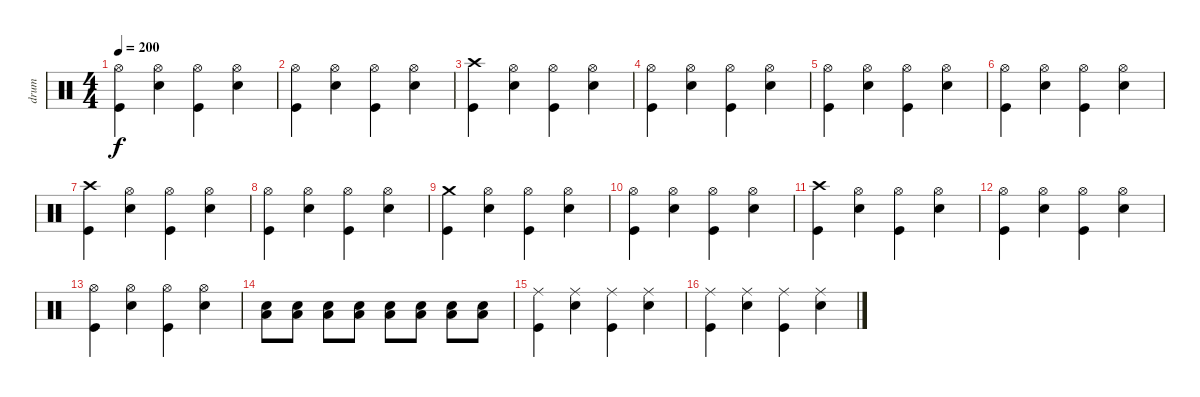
\track ("drum" "drum") {instrument percussion}
\staff {score}
\articulation defaults
\ts (4 4)
\tempo 200
\clef neutral
\ks c
("Hi-Hat (open)" "Kick (hit)").4{dy f} ("Hi-Hat (open)" "Snare (hit) 2").4 ("Hi-Hat (open)" "Kick (hit)").4 ("Hi-Hat (open)" "Snare (hit) 2").4 |
("Hi-Hat (open)" "Kick (hit)").4 ("Hi-Hat (open)" "Snare (hit) 2").4 ("Hi-Hat (open)" "Kick (hit)").4 ("Hi-Hat (open)" "Snare (hit) 2").4 |
("Crash high (hit)" "Kick (hit)").4 ("Hi-Hat (open)" "Snare (hit) 2").4 ("Hi-Hat (open)" "Kick (hit)").4 ("Hi-Hat (open)" "Snare (hit) 2").4 |
("Hi-Hat (open)" "Kick (hit)").4 ("Hi-Hat (open)" "Snare (hit) 2").4 ("Hi-Hat (open)" "Kick (hit)").4 ("Hi-Hat (open)" "Snare (hit) 2").4 |
("Hi-Hat (open)" "Kick (hit)").4 ("Hi-Hat (open)" "Snare (hit) 2").4 ("Hi-Hat (open)" "Kick (hit)").4 ("Hi-Hat (open)" "Snare (hit) 2").4 |
("Hi-Hat (open)" "Kick (hit)").4 ("Hi-Hat (open)" "Snare (hit) 2").4 ("Hi-Hat (open)" "Kick (hit)").4 ("Hi-Hat (open)" "Snare (hit) 2").4 |
("Crash high (hit)" "Kick (hit)").4 ("Hi-Hat (open)" "Snare (hit) 2").4 ("Hi-Hat (open)" "Kick (hit)").4 ("Hi-Hat (open)" "Snare (hit) 2").4 |
("Hi-Hat (open)" "Kick (hit)").4 ("Hi-Hat (open)" "Snare (hit) 2").4 ("Hi-Hat (open)" "Kick (hit)").4 ("Hi-Hat (open)" "Snare (hit) 2").4 |
("Crash medium (hit)" "Kick (hit)").4 ("Hi-Hat (open)" "Snare (hit) 2").4 ("Hi-Hat (open)" "Kick (hit)").4 ("Hi-Hat (open)" "Snare (hit) 2").4 |
("Hi-Hat (open)" "Kick (hit)").4 ("Hi-Hat (open)" "Snare (hit) 2").4 ("Hi-Hat (open)" "Kick (hit)").4 ("Hi-Hat (open)" "Snare (hit) 2").4 |
("Crash high (hit)" "Kick (hit)").4 ("Hi-Hat (open)" "Snare (hit) 2").4 ("Hi-Hat (open)" "Kick (hit)").4 ("Hi-Hat (open)" "Snare (hit) 2").4 |
("Hi-Hat (open)" "Kick (hit)").4 ("Hi-Hat (open)" "Snare (hit) 2").4 ("Hi-Hat (open)" "Kick (hit)").4 ("Hi-Hat (open)" "Snare (hit) 2").4 |
("Hi-Hat (open)" "Kick (hit)").4 ("Hi-Hat (open)" "Snare (hit) 2").4 ("Hi-Hat (open)" "Kick (hit)").4 ("Hi-Hat (open)" "Snare (hit) 2").4 |
("Snare (hit) 2" "Low Floor Tom (hit)").8 ("Snare (hit) 2" "Low Floor Tom (hit)").8 ("Snare (hit) 2" "Low Floor Tom (hit)").8 ("Snare (hit) 2" "Low Floor Tom (hit)").8 ("Snare (hit) 2" "Low Floor Tom (hit)").8 ("Snare (hit) 2" "Low Floor Tom (hit)").8 ("Snare (hit) 2" "Low Floor Tom (hit)").8 ("Snare (hit) 2" "Low Floor Tom (hit)").8 |
("Ride (middle)" "Kick (hit)").4 ("Ride (middle)" "Snare (hit) 2").4 ("Ride (middle)" "Kick (hit)").4 ("Ride (middle)" "Snare (hit) 2").4 |
("Ride (middle)" "Kick (hit)").4 ("Ride (middle)" "Snare (hit) 2").4 ("Ride (middle)" "Kick (hit)").4 ("Ride (middle)" "Snare (hit) 2").4
